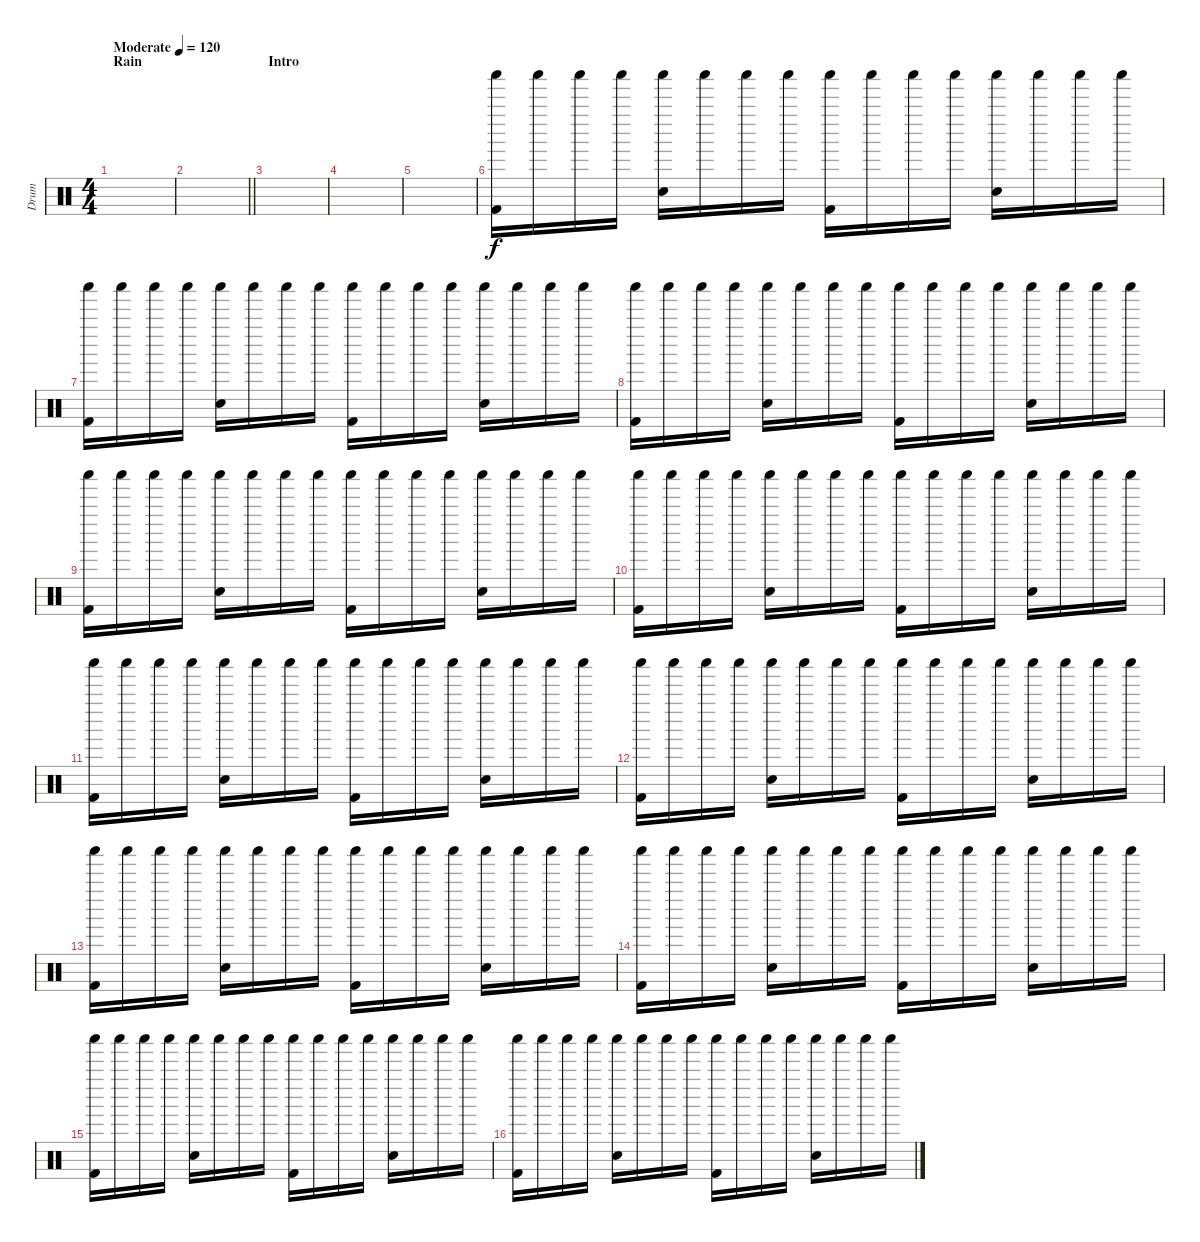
\track ("Drum " "Drum ") {instrument percussion}
\staff {score}
\articulation defaults
\ts (4 4)
\section ("" "Rain")
\tempo (120 "Moderate")
\clef neutral
\ks c
|
\barLineRight lightlight
|
\section ("" "Intro")
|
|
|
("Kick (hit) 2" "Shaker (hit)").16{volume 3} "Shaker (hit)".16 "Shaker (hit)".16 "Shaker (hit)".16 ("Electric Snare (hit)" "Shaker (hit)").16 "Shaker (hit)".16 "Shaker (hit)".16 "Shaker (hit)".16 ("Kick (hit) 2" "Shaker (hit)").16 "Shaker (hit)".16 "Shaker (hit)".16 "Shaker (hit)".16 ("Electric Snare (hit)" "Shaker (hit)").16 "Shaker (hit)".16 "Shaker (hit)".16 "Shaker (hit)".16 |
("Kick (hit) 2" "Shaker (hit)").16{volume 4} "Shaker (hit)".16 "Shaker (hit)".16 "Shaker (hit)".16 ("Electric Snare (hit)" "Shaker (hit)").16 "Shaker (hit)".16 "Shaker (hit)".16 "Shaker (hit)".16 ("Kick (hit) 2" "Shaker (hit)").16 "Shaker (hit)".16 "Shaker (hit)".16 "Shaker (hit)".16 ("Electric Snare (hit)" "Shaker (hit)").16 "Shaker (hit)".16 "Shaker (hit)".16 "Shaker (hit)".16 |
("Kick (hit) 2" "Shaker (hit)").16{volume 5} "Shaker (hit)".16 "Shaker (hit)".16 "Shaker (hit)".16 ("Electric Snare (hit)" "Shaker (hit)").16 "Shaker (hit)".16 "Shaker (hit)".16 "Shaker (hit)".16 ("Kick (hit) 2" "Shaker (hit)").16 "Shaker (hit)".16 "Shaker (hit)".16 "Shaker (hit)".16 ("Electric Snare (hit)" "Shaker (hit)").16 "Shaker (hit)".16 "Shaker (hit)".16 "Shaker (hit)".16 |
("Kick (hit) 2" "Shaker (hit)").16{volume 5} "Shaker (hit)".16 "Shaker (hit)".16 "Shaker (hit)".16 ("Electric Snare (hit)" "Shaker (hit)").16 "Shaker (hit)".16 "Shaker (hit)".16 "Shaker (hit)".16 ("Kick (hit) 2" "Shaker (hit)").16 "Shaker (hit)".16 "Shaker (hit)".16 "Shaker (hit)".16 ("Electric Snare (hit)" "Shaker (hit)").16 "Shaker (hit)".16 "Shaker (hit)".16 "Shaker (hit)".16 |
("Kick (hit) 2" "Shaker (hit)").16{volume 11} "Shaker (hit)".16 "Shaker (hit)".16 "Shaker (hit)".16 ("Electric Snare (hit)" "Shaker (hit)").16 "Shaker (hit)".16 "Shaker (hit)".16 "Shaker (hit)".16 ("Kick (hit) 2" "Shaker (hit)").16 "Shaker (hit)".16 "Shaker (hit)".16 "Shaker (hit)".16 ("Electric Snare (hit)" "Shaker (hit)").16 "Shaker (hit)".16 "Shaker (hit)".16 "Shaker (hit)".16 |
("Kick (hit) 2" "Shaker (hit)").16{volume 13} "Shaker (hit)".16 "Shaker (hit)".16 "Shaker (hit)".16 ("Electric Snare (hit)" "Shaker (hit)").16 "Shaker (hit)".16 "Shaker (hit)".16 "Shaker (hit)".16 ("Kick (hit) 2" "Shaker (hit)").16 "Shaker (hit)".16 "Shaker (hit)".16 "Shaker (hit)".16 ("Electric Snare (hit)" "Shaker (hit)").16 "Shaker (hit)".16 "Shaker (hit)".16 "Shaker (hit)".16 |
("Kick (hit) 2" "Shaker (hit)").16 "Shaker (hit)".16 "Shaker (hit)".16 "Shaker (hit)".16 ("Electric Snare (hit)" "Shaker (hit)").16 "Shaker (hit)".16 "Shaker (hit)".16 "Shaker (hit)".16 ("Kick (hit) 2" "Shaker (hit)").16 "Shaker (hit)".16 "Shaker (hit)".16 "Shaker (hit)".16 ("Electric Snare (hit)" "Shaker (hit)").16 "Shaker (hit)".16 "Shaker (hit)".16 "Shaker (hit)".16 |
("Kick (hit) 2" "Shaker (hit)").16 "Shaker (hit)".16 "Shaker (hit)".16 "Shaker (hit)".16 ("Electric Snare (hit)" "Shaker (hit)").16 "Shaker (hit)".16 "Shaker (hit)".16 "Shaker (hit)".16 ("Kick (hit) 2" "Shaker (hit)").16 "Shaker (hit)".16 "Shaker (hit)".16 "Shaker (hit)".16 ("Electric Snare (hit)" "Shaker (hit)").16 "Shaker (hit)".16 "Shaker (hit)".16 "Shaker (hit)".16 |
("Kick (hit) 2" "Shaker (hit)").16 "Shaker (hit)".16 "Shaker (hit)".16 "Shaker (hit)".16 ("Electric Snare (hit)" "Shaker (hit)").16 "Shaker (hit)".16 "Shaker (hit)".16 "Shaker (hit)".16 ("Kick (hit) 2" "Shaker (hit)").16 "Shaker (hit)".16 "Shaker (hit)".16 "Shaker (hit)".16 ("Electric Snare (hit)" "Shaker (hit)").16 "Shaker (hit)".16 "Shaker (hit)".16 "Shaker (hit)".16 |
("Kick (hit) 2" "Shaker (hit)").16 "Shaker (hit)".16 "Shaker (hit)".16 "Shaker (hit)".16 ("Electric Snare (hit)" "Shaker (hit)").16 "Shaker (hit)".16 "Shaker (hit)".16 "Shaker (hit)".16 ("Kick (hit) 2" "Shaker (hit)").16 "Shaker (hit)".16 "Shaker (hit)".16 "Shaker (hit)".16 ("Electric Snare (hit)" "Shaker (hit)").16 "Shaker (hit)".16 "Shaker (hit)".16 "Shaker (hit)".16 |
("Kick (hit) 2" "Shaker (hit)").16 "Shaker (hit)".16 "Shaker (hit)".16 "Shaker (hit)".16 ("Electric Snare (hit)" "Shaker (hit)").16 "Shaker (hit)".16 "Shaker (hit)".16 "Shaker (hit)".16 ("Kick (hit) 2" "Shaker (hit)").16 "Shaker (hit)".16 "Shaker (hit)".16 "Shaker (hit)".16 ("Electric Snare (hit)" "Shaker (hit)").16 "Shaker (hit)".16 "Shaker (hit)".16 "Shaker (hit)".16
